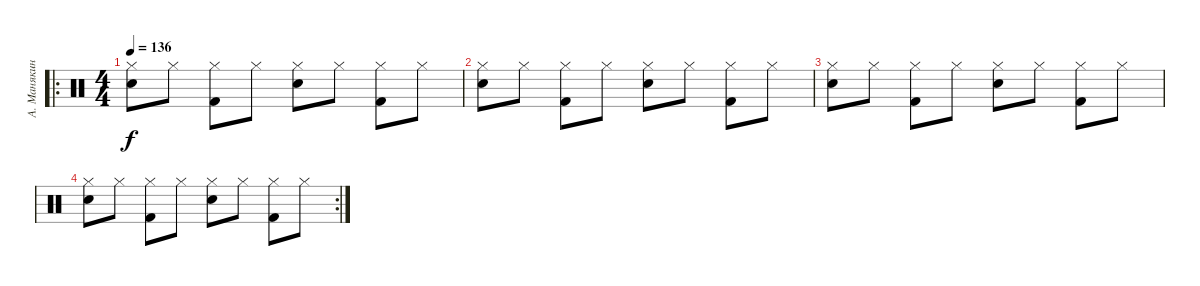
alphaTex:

\track ("А. Манякин" "А. Манякин") {instrument percussion}
\staff {score}
\articulation defaults
\ro
\ts (4 4)
\tempo 136
\clef neutral
\ks c
("Hi-Hat (closed)" "Snare (hit) 2").8{dy f} "Hi-Hat (closed)".8 ("Hi-Hat (closed)" "Kick (hit) 2").8 "Hi-Hat (closed)".8 ("Hi-Hat (closed)" "Snare (hit) 2").8 "Hi-Hat (closed)".8 ("Hi-Hat (closed)" "Kick (hit) 2").8 "Hi-Hat (closed)".8 |
("Hi-Hat (closed)" "Snare (hit) 2").8 "Hi-Hat (closed)".8 ("Hi-Hat (closed)" "Kick (hit) 2").8 "Hi-Hat (closed)".8 ("Hi-Hat (closed)" "Snare (hit) 2").8 "Hi-Hat (closed)".8 ("Hi-Hat (closed)" "Kick (hit) 2").8 "Hi-Hat (closed)".8 |
("Hi-Hat (closed)" "Snare (hit) 2").8 "Hi-Hat (closed)".8 ("Hi-Hat (closed)" "Kick (hit) 2").8 "Hi-Hat (closed)".8 ("Hi-Hat (closed)" "Snare (hit) 2").8 "Hi-Hat (closed)".8 ("Hi-Hat (closed)" "Kick (hit) 2").8 "Hi-Hat (closed)".8 |
\rc 2
("Hi-Hat (closed)" "Snare (hit) 2").8 "Hi-Hat (closed)".8 ("Hi-Hat (closed)" "Kick (hit) 2").8 "Hi-Hat (closed)".8 ("Hi-Hat (closed)" "Snare (hit) 2").8 "Hi-Hat (closed)".8 ("Hi-Hat (closed)" "Kick (hit) 2").8 "Hi-Hat (closed)".8
